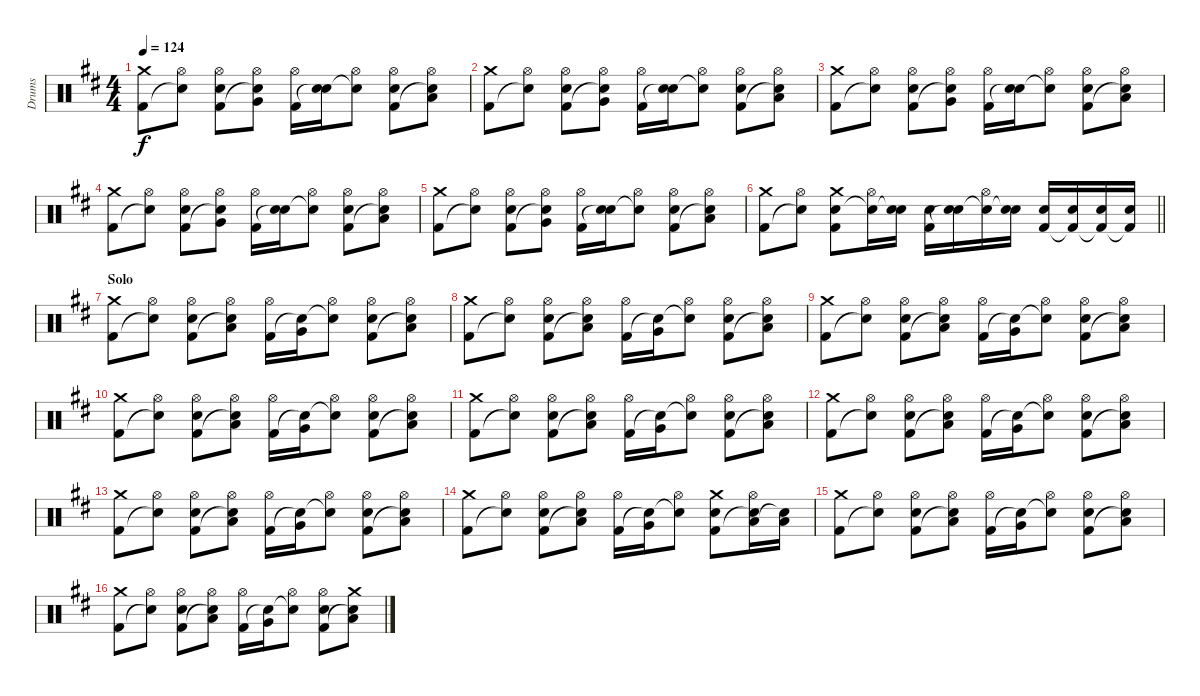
\track ("Drums" "Drums") {instrument percussion}
\staff {score}
\articulation defaults
\ts (4 4)
\tempo 124
\clef neutral
\ks d
("Crash medium (hit)" "Kick (hit) 2").8{dy f} ("Hi-Hat (open)" "Snare (hit)"{t}).8 ("Hi-Hat (open)" "Electric Snare (hit)" "Kick (hit) 2").8 ("Hi-Hat (open)" "Very Low Tom (hit)" "Snare (hit)"{t}).8 ("Hi-Hat (open)" "Kick (hit) 2").16 ("Electric Snare (hit)" "Snare (hit)"{t}).16 ("Hi-Hat (open)" "Snare (hit)"{t}).8 ("Hi-Hat (open)" "Electric Snare (hit)" "Kick (hit) 2").8 ("Hi-Hat (open)" "Low Floor Tom (hit)" "Snare (hit)"{t}).8 |
("Crash medium (hit)" "Kick (hit) 2").8 ("Hi-Hat (open)" "Snare (hit)"{t}).8 ("Hi-Hat (open)" "Electric Snare (hit)" "Kick (hit) 2").8 ("Hi-Hat (open)" "Very Low Tom (hit)" "Snare (hit)"{t}).8 ("Hi-Hat (open)" "Kick (hit) 2").16 ("Electric Snare (hit)" "Snare (hit)"{t}).16 ("Hi-Hat (open)" "Snare (hit)"{t}).8 ("Hi-Hat (open)" "Electric Snare (hit)" "Kick (hit) 2").8 ("Hi-Hat (open)" "Low Floor Tom (hit)" "Snare (hit)"{t}).8 |
("Crash medium (hit)" "Kick (hit) 2").8 ("Hi-Hat (open)" "Snare (hit)"{t}).8 ("Hi-Hat (open)" "Electric Snare (hit)" "Kick (hit) 2").8 ("Hi-Hat (open)" "Very Low Tom (hit)" "Snare (hit)"{t}).8 ("Hi-Hat (open)" "Kick (hit) 2").16 ("Electric Snare (hit)" "Snare (hit)"{t}).16 ("Hi-Hat (open)" "Snare (hit)"{t}).8 ("Hi-Hat (open)" "Electric Snare (hit)" "Kick (hit) 2").8 ("Hi-Hat (open)" "Low Floor Tom (hit)" "Snare (hit)"{t}).8 |
("Crash medium (hit)" "Kick (hit) 2").8 ("Hi-Hat (open)" "Snare (hit)"{t}).8 ("Hi-Hat (open)" "Electric Snare (hit)" "Kick (hit) 2").8 ("Hi-Hat (open)" "Very Low Tom (hit)" "Snare (hit)"{t}).8 ("Hi-Hat (open)" "Kick (hit) 2").16 ("Electric Snare (hit)" "Snare (hit)"{t}).16 ("Hi-Hat (open)" "Snare (hit)"{t}).8 ("Hi-Hat (open)" "Electric Snare (hit)" "Kick (hit) 2").8 ("Hi-Hat (open)" "Low Floor Tom (hit)" "Snare (hit)"{t}).8 |
("Crash medium (hit)" "Kick (hit) 2").8 ("Hi-Hat (open)" "Snare (hit)"{t}).8 ("Hi-Hat (open)" "Electric Snare (hit)" "Kick (hit) 2").8 ("Hi-Hat (open)" "Very Low Tom (hit)" "Snare (hit)"{t}).8 ("Hi-Hat (open)" "Kick (hit) 2").16 ("Electric Snare (hit)" "Snare (hit)"{t}).16 ("Hi-Hat (open)" "Snare (hit)"{t}).8 ("Hi-Hat (open)" "Electric Snare (hit)" "Kick (hit) 2").8 ("Hi-Hat (open)" "Low Floor Tom (hit)" "Snare (hit)"{t}).8 |
\barLineRight lightlight
("Crash medium (hit)" "Kick (hit) 2").8 ("Hi-Hat (open)" "Snare (hit)"{t}).8 ("Crash medium (hit)" "Electric Snare (hit)" "Kick (hit) 2").8 ("Hi-Hat (open)" "Snare (hit)"{t}).16 ("Electric Snare (hit)" "Snare (hit)"{t}).16 ("Electric Snare (hit)" "Kick (hit) 2").16 ("Electric Snare (hit)" "Snare (hit)"{t}).16 ("Hi-Hat (open)" "Snare (hit)"{t}).16 ("Electric Snare (hit)" "Snare (hit)"{t}).16 ("Electric Snare (hit)" "Kick (hit) 2").16 ("Electric Snare (hit)" "Kick (hit) 2"{t}).16 ("Electric Snare (hit)" "Kick (hit) 2"{t}).16 ("Electric Snare (hit)" "Kick (hit) 2"{t}).16 |
\section ("" "Solo")
("Crash medium (hit)" "Kick (hit) 2").8 ("Hi-Hat (open)" "Snare (hit)"{t}).8 ("Hi-Hat (open)" "Electric Snare (hit)" "Kick (hit) 2").8 ("Hi-Hat (open)" "Low Tom (hit)" "Snare (hit)"{t}).8 ("Hi-Hat (open)" "Kick (hit) 2").16 ("Very Low Tom (hit)" "Snare (hit)"{t}).16 ("Hi-Hat (open)" "Snare (hit)"{t}).8 ("Hi-Hat (open)" "Electric Snare (hit)" "Kick (hit) 2").8 ("Hi-Hat (open)" "Low Floor Tom (hit)" "Snare (hit)"{t}).8 |
("Crash medium (hit)" "Kick (hit) 2").8 ("Hi-Hat (open)" "Snare (hit)"{t}).8 ("Hi-Hat (open)" "Electric Snare (hit)" "Kick (hit) 2").8 ("Hi-Hat (open)" "Low Tom (hit)" "Snare (hit)"{t}).8 ("Hi-Hat (open)" "Kick (hit) 2").16 ("Very Low Tom (hit)" "Snare (hit)"{t}).16 ("Hi-Hat (open)" "Snare (hit)"{t}).8 ("Hi-Hat (open)" "Electric Snare (hit)" "Kick (hit) 2").8 ("Hi-Hat (open)" "Low Floor Tom (hit)" "Snare (hit)"{t}).8 |
("Crash medium (hit)" "Kick (hit) 2").8 ("Hi-Hat (open)" "Snare (hit)"{t}).8 ("Hi-Hat (open)" "Electric Snare (hit)" "Kick (hit) 2").8 ("Hi-Hat (open)" "Low Tom (hit)" "Snare (hit)"{t}).8 ("Hi-Hat (open)" "Kick (hit) 2").16 ("Very Low Tom (hit)" "Snare (hit)"{t}).16 ("Hi-Hat (open)" "Snare (hit)"{t}).8 ("Hi-Hat (open)" "Electric Snare (hit)" "Kick (hit) 2").8 ("Hi-Hat (open)" "Low Floor Tom (hit)" "Snare (hit)"{t}).8 |
("Crash medium (hit)" "Kick (hit) 2").8 ("Hi-Hat (open)" "Snare (hit)"{t}).8 ("Hi-Hat (open)" "Electric Snare (hit)" "Kick (hit) 2").8 ("Hi-Hat (open)" "Low Tom (hit)" "Snare (hit)"{t}).8 ("Hi-Hat (open)" "Kick (hit) 2").16 ("Very Low Tom (hit)" "Snare (hit)"{t}).16 ("Hi-Hat (open)" "Snare (hit)"{t}).8 ("Hi-Hat (open)" "Electric Snare (hit)" "Kick (hit) 2").8 ("Hi-Hat (open)" "Low Floor Tom (hit)" "Snare (hit)"{t}).8 |
("Crash medium (hit)" "Kick (hit) 2").8 ("Hi-Hat (open)" "Snare (hit)"{t}).8 ("Hi-Hat (open)" "Electric Snare (hit)" "Kick (hit) 2").8 ("Hi-Hat (open)" "Low Tom (hit)" "Snare (hit)"{t}).8 ("Hi-Hat (open)" "Kick (hit) 2").16 ("Very Low Tom (hit)" "Snare (hit)"{t}).16 ("Hi-Hat (open)" "Snare (hit)"{t}).8 ("Hi-Hat (open)" "Electric Snare (hit)" "Kick (hit) 2").8 ("Hi-Hat (open)" "Low Floor Tom (hit)" "Snare (hit)"{t}).8 |
("Crash medium (hit)" "Kick (hit) 2").8 ("Hi-Hat (open)" "Snare (hit)"{t}).8 ("Hi-Hat (open)" "Electric Snare (hit)" "Kick (hit) 2").8 ("Hi-Hat (open)" "Low Tom (hit)" "Snare (hit)"{t}).8 ("Hi-Hat (open)" "Kick (hit) 2").16 ("Very Low Tom (hit)" "Snare (hit)"{t}).16 ("Hi-Hat (open)" "Snare (hit)"{t}).8 ("Hi-Hat (open)" "Electric Snare (hit)" "Kick (hit) 2").8 ("Hi-Hat (open)" "Low Floor Tom (hit)" "Snare (hit)"{t}).8 |
("Crash medium (hit)" "Kick (hit) 2").8 ("Hi-Hat (open)" "Snare (hit)"{t}).8 ("Hi-Hat (open)" "Electric Snare (hit)" "Kick (hit) 2").8 ("Hi-Hat (open)" "Low Tom (hit)" "Snare (hit)"{t}).8 ("Hi-Hat (open)" "Kick (hit) 2").16 ("Very Low Tom (hit)" "Snare (hit)"{t}).16 ("Hi-Hat (open)" "Snare (hit)"{t}).8 ("Hi-Hat (open)" "Electric Snare (hit)" "Kick (hit) 2").8 ("Hi-Hat (open)" "Low Floor Tom (hit)" "Snare (hit)"{t}).8 |
("Crash medium (hit)" "Kick (hit) 2").8 ("Hi-Hat (open)" "Snare (hit)"{t}).8 ("Hi-Hat (open)" "Electric Snare (hit)" "Kick (hit) 2").8 ("Hi-Hat (open)" "Low Tom (hit)" "Snare (hit)"{t}).8 ("Hi-Hat (open)" "Kick (hit) 2").16 ("Very Low Tom (hit)" "Snare (hit)"{t}).16 ("Hi-Hat (open)" "Snare (hit)"{t}).8 ("Crash medium (hit)" "Electric Snare (hit)" "Kick (hit) 2").8 ("Hi-Hat (open)" "Low Floor Tom (hit)" "Snare (hit)"{t}).16 ("Low Floor Tom (hit)" "Snare (hit)"{t}).16 |
("Crash medium (hit)" "Kick (hit) 2").8 ("Hi-Hat (open)" "Snare (hit)"{t}).8 ("Hi-Hat (open)" "Electric Snare (hit)" "Kick (hit) 2").8 ("Hi-Hat (open)" "Low Tom (hit)" "Snare (hit)"{t}).8 ("Hi-Hat (open)" "Kick (hit) 2").16 ("Very Low Tom (hit)" "Snare (hit)"{t}).16 ("Hi-Hat (open)" "Snare (hit)"{t}).8 ("Hi-Hat (open)" "Electric Snare (hit)" "Kick (hit) 2").8 ("Hi-Hat (open)" "Low Floor Tom (hit)" "Snare (hit)"{t}).8 |
("Crash medium (hit)" "Kick (hit) 2").8 ("Hi-Hat (open)" "Snare (hit)"{t}).8 ("Hi-Hat (open)" "Electric Snare (hit)" "Kick (hit) 2").8 ("Hi-Hat (open)" "Low Tom (hit)" "Snare (hit)"{t}).8 ("Hi-Hat (open)" "Kick (hit) 2").16 ("Very Low Tom (hit)" "Snare (hit)"{t}).16 ("Hi-Hat (open)" "Snare (hit)"{t}).8 ("Hi-Hat (open)" "Electric Snare (hit)" "Kick (hit) 2").8 ("Crash medium (hit)" "Low Floor Tom (hit)" "Snare (hit)"{t}).8
